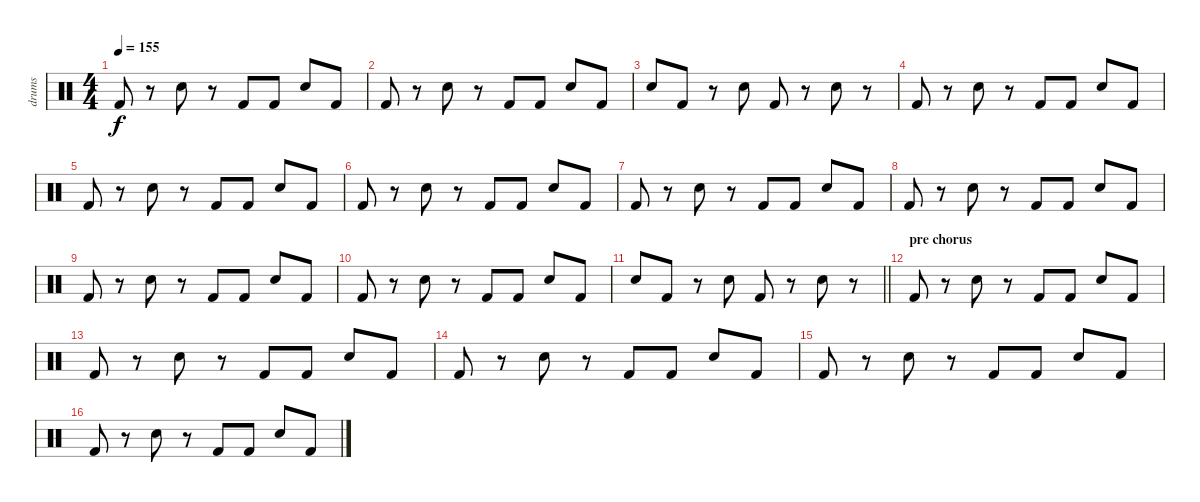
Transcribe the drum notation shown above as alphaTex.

\track ("drums" "drums") {instrument percussion}
\staff {score}
\articulation defaults
\ts (4 4)
\tempo 155
\clef neutral
\ks c "Kick (hit) 2".8{dy f}
r.8 "Snare (hit) 2".8 r.8 "Kick (hit) 2".8 "Kick (hit) 2".8 "Snare (hit) 2".8 "Kick (hit) 2".8 |
"Kick (hit) 2".8 r.8 "Snare (hit) 2".8 r.8 "Kick (hit) 2".8 "Kick (hit) 2".8 "Snare (hit) 2".8 "Kick (hit) 2".8 |
"Snare (hit) 2".8 "Kick (hit) 2".8 r.8 "Snare (hit) 2".8 "Kick (hit) 2".8 r.8 "Snare (hit) 2".8 r.8 |
"Kick (hit) 2".8 r.8 "Snare (hit) 2".8 r.8 "Kick (hit) 2".8 "Kick (hit) 2".8 "Snare (hit) 2".8 "Kick (hit) 2".8 |
"Kick (hit) 2".8 r.8 "Snare (hit) 2".8 r.8 "Kick (hit) 2".8 "Kick (hit) 2".8 "Snare (hit) 2".8 "Kick (hit) 2".8 |
"Kick (hit) 2".8 r.8 "Snare (hit) 2".8 r.8 "Kick (hit) 2".8 "Kick (hit) 2".8 "Snare (hit) 2".8 "Kick (hit) 2".8 |
"Kick (hit) 2".8 r.8 "Snare (hit) 2".8 r.8 "Kick (hit) 2".8 "Kick (hit) 2".8 "Snare (hit) 2".8 "Kick (hit) 2".8 |
"Kick (hit) 2".8 r.8 "Snare (hit) 2".8 r.8 "Kick (hit) 2".8 "Kick (hit) 2".8 "Snare (hit) 2".8 "Kick (hit) 2".8 |
"Kick (hit) 2".8 r.8 "Snare (hit) 2".8 r.8 "Kick (hit) 2".8 "Kick (hit) 2".8 "Snare (hit) 2".8 "Kick (hit) 2".8 |
"Kick (hit) 2".8 r.8 "Snare (hit) 2".8 r.8 "Kick (hit) 2".8 "Kick (hit) 2".8 "Snare (hit) 2".8 "Kick (hit) 2".8 |
\barLineRight lightlight "Snare (hit) 2".8 "Kick (hit) 2".8
r.8 "Snare (hit) 2".8 "Kick (hit) 2".8 r.8 "Snare (hit) 2".8 r.8 |
\section ("" "pre chorus")
"Kick (hit) 2".8 r.8 "Snare (hit) 2".8 r.8 "Kick (hit) 2".8 "Kick (hit) 2".8 "Snare (hit) 2".8 "Kick (hit) 2".8 |
"Kick (hit) 2".8 r.8 "Snare (hit) 2".8 r.8 "Kick (hit) 2".8 "Kick (hit) 2".8 "Snare (hit) 2".8 "Kick (hit) 2".8 |
"Kick (hit) 2".8 r.8 "Snare (hit) 2".8 r.8 "Kick (hit) 2".8 "Kick (hit) 2".8 "Snare (hit) 2".8 "Kick (hit) 2".8 |
"Kick (hit) 2".8 r.8 "Snare (hit) 2".8 r.8 "Kick (hit) 2".8 "Kick (hit) 2".8 "Snare (hit) 2".8 "Kick (hit) 2".8 |
"Kick (hit) 2".8 r.8 "Snare (hit) 2".8 r.8 "Kick (hit) 2".8 "Kick (hit) 2".8 "Snare (hit) 2".8 "Kick (hit) 2".8
